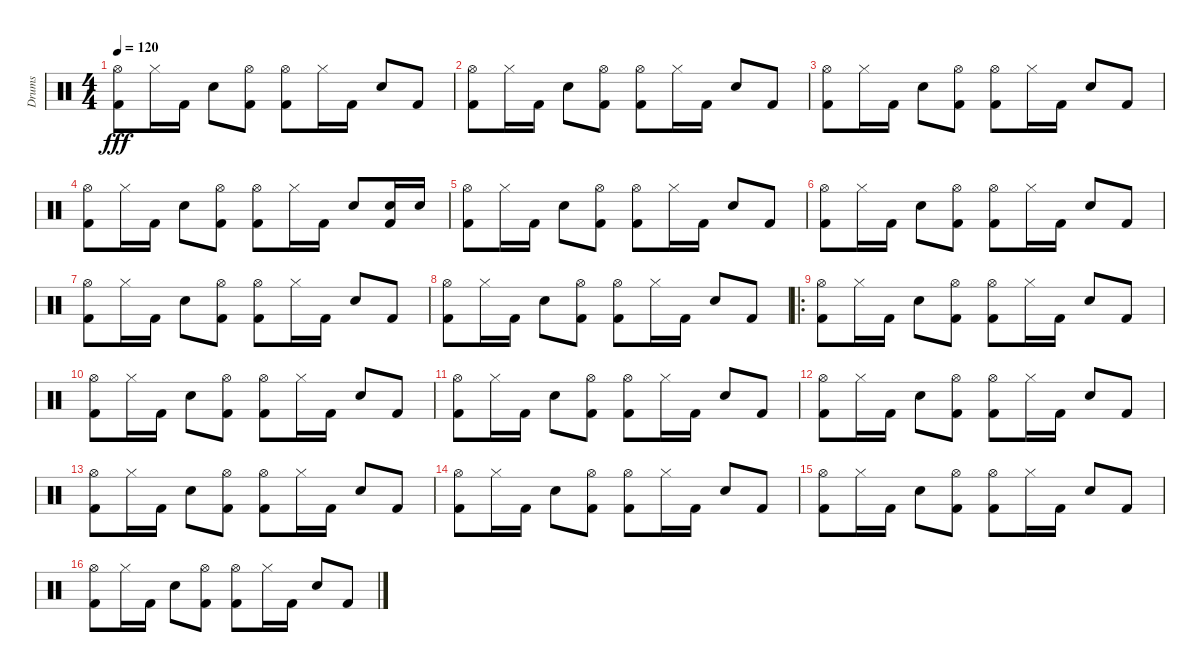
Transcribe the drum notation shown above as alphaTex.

\track ("Drums" "Drums") {instrument percussion}
\staff {score}
\articulation defaults
\ts (4 4)
\tempo 120
\clef neutral
\ks c
("Hi-Hat (open)" "Kick (hit) 2").8{dy fff} "Hi-Hat (closed)".16 "Kick (hit) 2".16 "Electric Snare (hit)".8 ("Hi-Hat (open)" "Kick (hit) 2").8 ("Hi-Hat (open)" "Kick (hit) 2").8 "Hi-Hat (closed)".16 "Kick (hit) 2".16 "Electric Snare (hit)".8 "Kick (hit) 2".8 |
("Hi-Hat (open)" "Kick (hit) 2").8 "Hi-Hat (closed)".16 "Kick (hit) 2".16 "Electric Snare (hit)".8 ("Hi-Hat (open)" "Kick (hit) 2").8 ("Hi-Hat (open)" "Kick (hit) 2").8 "Hi-Hat (closed)".16 "Kick (hit) 2".16 "Electric Snare (hit)".8 "Kick (hit) 2".8 |
("Hi-Hat (open)" "Kick (hit) 2").8 "Hi-Hat (closed)".16 "Kick (hit) 2".16 "Electric Snare (hit)".8 ("Hi-Hat (open)" "Kick (hit) 2").8 ("Hi-Hat (open)" "Kick (hit) 2").8 "Hi-Hat (closed)".16 "Kick (hit) 2".16 "Electric Snare (hit)".8 "Kick (hit) 2".8 |
("Hi-Hat (open)" "Kick (hit) 2").8 "Hi-Hat (closed)".16 "Kick (hit) 2".16 "Electric Snare (hit)".8 ("Hi-Hat (open)" "Kick (hit) 2").8 ("Hi-Hat (open)" "Kick (hit) 2").8 "Hi-Hat (closed)".16 "Kick (hit) 2".16 "Electric Snare (hit)".8 ("Kick (hit) 2" "Electric Snare (hit)").16 "Electric Snare (hit)".16 |
("Hi-Hat (open)" "Kick (hit) 2").8 "Hi-Hat (closed)".16 "Kick (hit) 2".16 "Electric Snare (hit)".8 ("Hi-Hat (open)" "Kick (hit) 2").8 ("Hi-Hat (open)" "Kick (hit) 2").8 "Hi-Hat (closed)".16 "Kick (hit) 2".16 "Electric Snare (hit)".8 "Kick (hit) 2".8 |
("Hi-Hat (open)" "Kick (hit) 2").8 "Hi-Hat (closed)".16 "Kick (hit) 2".16 "Electric Snare (hit)".8 ("Hi-Hat (open)" "Kick (hit) 2").8 ("Hi-Hat (open)" "Kick (hit) 2").8 "Hi-Hat (closed)".16 "Kick (hit) 2".16 "Electric Snare (hit)".8 "Kick (hit) 2".8 |
("Hi-Hat (open)" "Kick (hit) 2").8 "Hi-Hat (closed)".16 "Kick (hit) 2".16 "Electric Snare (hit)".8 ("Hi-Hat (open)" "Kick (hit) 2").8 ("Hi-Hat (open)" "Kick (hit) 2").8 "Hi-Hat (closed)".16 "Kick (hit) 2".16 "Electric Snare (hit)".8 "Kick (hit) 2".8 |
("Hi-Hat (open)" "Kick (hit) 2").8 "Hi-Hat (closed)".16 "Kick (hit) 2".16 "Electric Snare (hit)".8 ("Hi-Hat (open)" "Kick (hit) 2").8 ("Hi-Hat (open)" "Kick (hit) 2").8 "Hi-Hat (closed)".16 "Kick (hit) 2".16 "Electric Snare (hit)".8 "Kick (hit) 2".8 |
\ro
("Hi-Hat (open)" "Kick (hit) 2").8 "Hi-Hat (closed)".16 "Kick (hit) 2".16 "Electric Snare (hit)".8 ("Hi-Hat (open)" "Kick (hit) 2").8 ("Hi-Hat (open)" "Kick (hit) 2").8 "Hi-Hat (closed)".16 "Kick (hit) 2".16 "Electric Snare (hit)".8 "Kick (hit) 2".8 |
("Hi-Hat (open)" "Kick (hit) 2").8 "Hi-Hat (closed)".16 "Kick (hit) 2".16 "Electric Snare (hit)".8 ("Hi-Hat (open)" "Kick (hit) 2").8 ("Hi-Hat (open)" "Kick (hit) 2").8 "Hi-Hat (closed)".16 "Kick (hit) 2".16 "Electric Snare (hit)".8 "Kick (hit) 2".8 |
("Hi-Hat (open)" "Kick (hit) 2").8 "Hi-Hat (closed)".16 "Kick (hit) 2".16 "Electric Snare (hit)".8 ("Hi-Hat (open)" "Kick (hit) 2").8 ("Hi-Hat (open)" "Kick (hit) 2").8 "Hi-Hat (closed)".16 "Kick (hit) 2".16 "Electric Snare (hit)".8 "Kick (hit) 2".8 |
("Hi-Hat (open)" "Kick (hit) 2").8 "Hi-Hat (closed)".16 "Kick (hit) 2".16 "Electric Snare (hit)".8 ("Hi-Hat (open)" "Kick (hit) 2").8 ("Hi-Hat (open)" "Kick (hit) 2").8 "Hi-Hat (closed)".16 "Kick (hit) 2".16 "Electric Snare (hit)".8 "Kick (hit) 2".8 |
("Hi-Hat (open)" "Kick (hit) 2").8 "Hi-Hat (closed)".16 "Kick (hit) 2".16 "Electric Snare (hit)".8 ("Hi-Hat (open)" "Kick (hit) 2").8 ("Hi-Hat (open)" "Kick (hit) 2").8 "Hi-Hat (closed)".16 "Kick (hit) 2".16 "Electric Snare (hit)".8 "Kick (hit) 2".8 |
("Hi-Hat (open)" "Kick (hit) 2").8 "Hi-Hat (closed)".16 "Kick (hit) 2".16 "Electric Snare (hit)".8 ("Hi-Hat (open)" "Kick (hit) 2").8 ("Hi-Hat (open)" "Kick (hit) 2").8 "Hi-Hat (closed)".16 "Kick (hit) 2".16 "Electric Snare (hit)".8 "Kick (hit) 2".8 |
("Hi-Hat (open)" "Kick (hit) 2").8 "Hi-Hat (closed)".16 "Kick (hit) 2".16 "Electric Snare (hit)".8 ("Hi-Hat (open)" "Kick (hit) 2").8 ("Hi-Hat (open)" "Kick (hit) 2").8 "Hi-Hat (closed)".16 "Kick (hit) 2".16 "Electric Snare (hit)".8 "Kick (hit) 2".8 |
("Hi-Hat (open)" "Kick (hit) 2").8 "Hi-Hat (closed)".16 "Kick (hit) 2".16 "Electric Snare (hit)".8 ("Hi-Hat (open)" "Kick (hit) 2").8 ("Hi-Hat (open)" "Kick (hit) 2").8 "Hi-Hat (closed)".16 "Kick (hit) 2".16 "Electric Snare (hit)".8 "Kick (hit) 2".8
